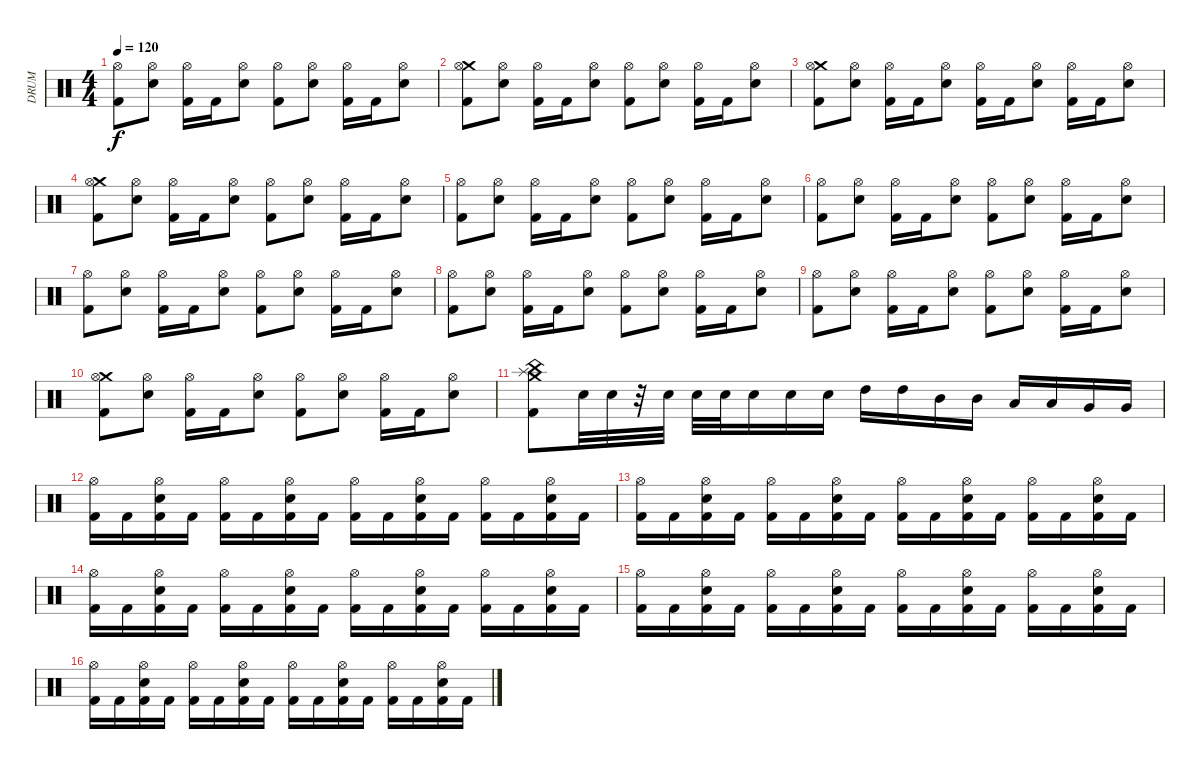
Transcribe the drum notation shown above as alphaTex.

\track (" DRUM" " DRUM") {instrument percussion}
\staff {score}
\articulation defaults
\ts (4 4)
\tempo 120
\clef neutral
\ks c
("Hi-Hat (open)" "Kick (hit) 2").8{dy f} ("Hi-Hat (open)" "Electric Snare (hit)").8 ("Hi-Hat (open)" "Kick (hit) 2").16 "Kick (hit) 2".16 ("Hi-Hat (open)" "Electric Snare (hit)").8 ("Hi-Hat (open)" "Kick (hit) 2").8 ("Hi-Hat (open)" "Electric Snare (hit)").8 ("Hi-Hat (open)" "Kick (hit) 2").16 "Kick (hit) 2".16 ("Hi-Hat (open)" "Electric Snare (hit)").8 |
("Crash medium (hit)" "Hi-Hat (open)" "Kick (hit) 2").8 ("Hi-Hat (open)" "Electric Snare (hit)").8 ("Hi-Hat (open)" "Kick (hit) 2").16 "Kick (hit) 2".16 ("Hi-Hat (open)" "Electric Snare (hit)").8 ("Hi-Hat (open)" "Kick (hit) 2").8 ("Hi-Hat (open)" "Electric Snare (hit)").8 ("Hi-Hat (open)" "Kick (hit) 2").16 "Kick (hit) 2".16 ("Hi-Hat (open)" "Electric Snare (hit)").8 |
("Crash medium (hit)" "Hi-Hat (open)" "Kick (hit) 2").8 ("Hi-Hat (open)" "Electric Snare (hit)").8 ("Hi-Hat (open)" "Kick (hit) 2").16 "Kick (hit) 2".16 ("Hi-Hat (open)" "Electric Snare (hit)").8 ("Kick (hit) 2" "Hi-Hat (open)").16 "Kick (hit) 2".16 ("Hi-Hat (open)" "Electric Snare (hit)").8 ("Hi-Hat (open)" "Kick (hit) 2").16 "Kick (hit) 2".16 ("Hi-Hat (open)" "Electric Snare (hit)").8 |
("Crash medium (hit)" "Hi-Hat (open)" "Kick (hit) 2").8 ("Hi-Hat (open)" "Electric Snare (hit)").8 ("Hi-Hat (open)" "Kick (hit) 2").16 "Kick (hit) 2".16 ("Hi-Hat (open)" "Electric Snare (hit)").8 ("Hi-Hat (open)" "Kick (hit) 2").8 ("Hi-Hat (open)" "Electric Snare (hit)").8 ("Hi-Hat (open)" "Kick (hit) 2").16 "Kick (hit) 2".16 ("Hi-Hat (open)" "Electric Snare (hit)").8 |
("Hi-Hat (open)" "Kick (hit) 2").8 ("Hi-Hat (open)" "Electric Snare (hit)").8 ("Hi-Hat (open)" "Kick (hit) 2").16 "Kick (hit) 2".16 ("Hi-Hat (open)" "Electric Snare (hit)").8 ("Hi-Hat (open)" "Kick (hit) 2").8 ("Hi-Hat (open)" "Electric Snare (hit)").8 ("Hi-Hat (open)" "Kick (hit) 2").16 "Kick (hit) 2".16 ("Hi-Hat (open)" "Electric Snare (hit)").8 |
("Hi-Hat (open)" "Kick (hit) 2").8 ("Hi-Hat (open)" "Electric Snare (hit)").8 ("Hi-Hat (open)" "Kick (hit) 2").16 "Kick (hit) 2".16 ("Hi-Hat (open)" "Electric Snare (hit)").8 ("Hi-Hat (open)" "Kick (hit) 2").8 ("Hi-Hat (open)" "Electric Snare (hit)").8 ("Hi-Hat (open)" "Kick (hit) 2").16 "Kick (hit) 2".16 ("Hi-Hat (open)" "Electric Snare (hit)").8 |
("Hi-Hat (open)" "Kick (hit) 2").8 ("Hi-Hat (open)" "Electric Snare (hit)").8 ("Hi-Hat (open)" "Kick (hit) 2").16 "Kick (hit) 2".16 ("Hi-Hat (open)" "Electric Snare (hit)").8 ("Hi-Hat (open)" "Kick (hit) 2").8 ("Hi-Hat (open)" "Electric Snare (hit)").8 ("Hi-Hat (open)" "Kick (hit) 2").16 "Kick (hit) 2".16 ("Hi-Hat (open)" "Electric Snare (hit)").8 |
("Hi-Hat (open)" "Kick (hit) 2").8 ("Hi-Hat (open)" "Electric Snare (hit)").8 ("Hi-Hat (open)" "Kick (hit) 2").16 "Kick (hit) 2".16 ("Hi-Hat (open)" "Electric Snare (hit)").8 ("Hi-Hat (open)" "Kick (hit) 2").8 ("Hi-Hat (open)" "Electric Snare (hit)").8 ("Hi-Hat (open)" "Kick (hit) 2").16 "Kick (hit) 2".16 ("Hi-Hat (open)" "Electric Snare (hit)").8 |
("Hi-Hat (open)" "Kick (hit) 2").8 ("Hi-Hat (open)" "Electric Snare (hit)").8 ("Hi-Hat (open)" "Kick (hit) 2").16 "Kick (hit) 2".16 ("Hi-Hat (open)" "Electric Snare (hit)").8 ("Hi-Hat (open)" "Kick (hit) 2").8 ("Hi-Hat (open)" "Electric Snare (hit)").8 ("Hi-Hat (open)" "Kick (hit) 2").16 "Kick (hit) 2".16 ("Hi-Hat (open)" "Electric Snare (hit)").8 |
("Crash medium (hit)" "Hi-Hat (open)" "Kick (hit) 2").8 ("Hi-Hat (open)" "Electric Snare (hit)").8 ("Hi-Hat (open)" "Kick (hit) 2").16 "Kick (hit) 2".16 ("Hi-Hat (open)" "Electric Snare (hit)").8 ("Hi-Hat (open)" "Kick (hit) 2").8 ("Hi-Hat (open)" "Electric Snare (hit)").8 ("Hi-Hat (open)" "Kick (hit) 2").16 "Kick (hit) 2".16 ("Hi-Hat (open)" "Electric Snare (hit)").8 |
("Splash (hit)" "Crash medium (hit)" "China (hit)" "Kick (hit) 2").8{volume 15} "Electric Snare (hit)".32{volume 4} "Electric Snare (hit)".32{volume 5} r.32 "Electric Snare (hit)".32{volume 6} "Electric Snare (hit)".32{volume 8} "Electric Snare (hit)".32{volume 8} "Electric Snare (hit)".16{volume 9} "Electric Snare (hit)".16{volume 11} "Electric Snare (hit)".16{volume 13} "High Tom (hit)".16{volume 15} "High Tom (hit)".16 "Mid Tom (hit)".16 "Mid Tom (hit)".16 "Low Tom (hit)".16 "Low Tom (hit)".16 "Very Low Tom (hit)".16 "Very Low Tom (hit)".16 |
("Kick (hit) 2" "Hi-Hat (open)").16 "Kick (hit) 2".16 ("Kick (hit) 2" "Electric Snare (hit)" "Hi-Hat (open)").16 "Kick (hit) 2".16 ("Kick (hit) 2" "Hi-Hat (open)").16 "Kick (hit) 2".16 ("Kick (hit) 2" "Electric Snare (hit)" "Hi-Hat (open)").16 "Kick (hit) 2".16 ("Kick (hit) 2" "Hi-Hat (open)").16 "Kick (hit) 2".16 ("Kick (hit) 2" "Electric Snare (hit)" "Hi-Hat (open)").16 "Kick (hit) 2".16 ("Kick (hit) 2" "Hi-Hat (open)").16 "Kick (hit) 2".16 ("Kick (hit) 2" "Electric Snare (hit)" "Hi-Hat (open)").16 "Kick (hit) 2".16 |
("Kick (hit) 2" "Hi-Hat (open)").16 "Kick (hit) 2".16 ("Kick (hit) 2" "Electric Snare (hit)" "Hi-Hat (open)").16 "Kick (hit) 2".16 ("Kick (hit) 2" "Hi-Hat (open)").16 "Kick (hit) 2".16 ("Kick (hit) 2" "Electric Snare (hit)" "Hi-Hat (open)").16 "Kick (hit) 2".16 ("Kick (hit) 2" "Hi-Hat (open)").16 "Kick (hit) 2".16 ("Kick (hit) 2" "Electric Snare (hit)" "Hi-Hat (open)").16 "Kick (hit) 2".16 ("Kick (hit) 2" "Hi-Hat (open)").16 "Kick (hit) 2".16 ("Kick (hit) 2" "Electric Snare (hit)" "Hi-Hat (open)").16 "Kick (hit) 2".16 |
("Kick (hit) 2" "Hi-Hat (open)").16 "Kick (hit) 2".16 ("Kick (hit) 2" "Electric Snare (hit)" "Hi-Hat (open)").16 "Kick (hit) 2".16 ("Kick (hit) 2" "Hi-Hat (open)").16 "Kick (hit) 2".16 ("Kick (hit) 2" "Electric Snare (hit)" "Hi-Hat (open)").16 "Kick (hit) 2".16 ("Kick (hit) 2" "Hi-Hat (open)").16 "Kick (hit) 2".16 ("Kick (hit) 2" "Electric Snare (hit)" "Hi-Hat (open)").16 "Kick (hit) 2".16 ("Kick (hit) 2" "Hi-Hat (open)").16 "Kick (hit) 2".16 ("Kick (hit) 2" "Electric Snare (hit)" "Hi-Hat (open)").16 "Kick (hit) 2".16 |
("Kick (hit) 2" "Hi-Hat (open)").16 "Kick (hit) 2".16 ("Kick (hit) 2" "Electric Snare (hit)" "Hi-Hat (open)").16 "Kick (hit) 2".16 ("Kick (hit) 2" "Hi-Hat (open)").16 "Kick (hit) 2".16 ("Kick (hit) 2" "Electric Snare (hit)" "Hi-Hat (open)").16 "Kick (hit) 2".16 ("Kick (hit) 2" "Hi-Hat (open)").16 "Kick (hit) 2".16 ("Kick (hit) 2" "Electric Snare (hit)" "Hi-Hat (open)").16 "Kick (hit) 2".16 ("Kick (hit) 2" "Hi-Hat (open)").16 "Kick (hit) 2".16 ("Kick (hit) 2" "Electric Snare (hit)" "Hi-Hat (open)").16 "Kick (hit) 2".16 |
("Kick (hit) 2" "Hi-Hat (open)").16 "Kick (hit) 2".16 ("Kick (hit) 2" "Electric Snare (hit)" "Hi-Hat (open)").16 "Kick (hit) 2".16 ("Kick (hit) 2" "Hi-Hat (open)").16 "Kick (hit) 2".16 ("Kick (hit) 2" "Electric Snare (hit)" "Hi-Hat (open)").16 "Kick (hit) 2".16 ("Kick (hit) 2" "Hi-Hat (open)").16 "Kick (hit) 2".16 ("Kick (hit) 2" "Electric Snare (hit)" "Hi-Hat (open)").16 "Kick (hit) 2".16 ("Kick (hit) 2" "Hi-Hat (open)").16 "Kick (hit) 2".16 ("Kick (hit) 2" "Electric Snare (hit)" "Hi-Hat (open)").16 "Kick (hit) 2".16
